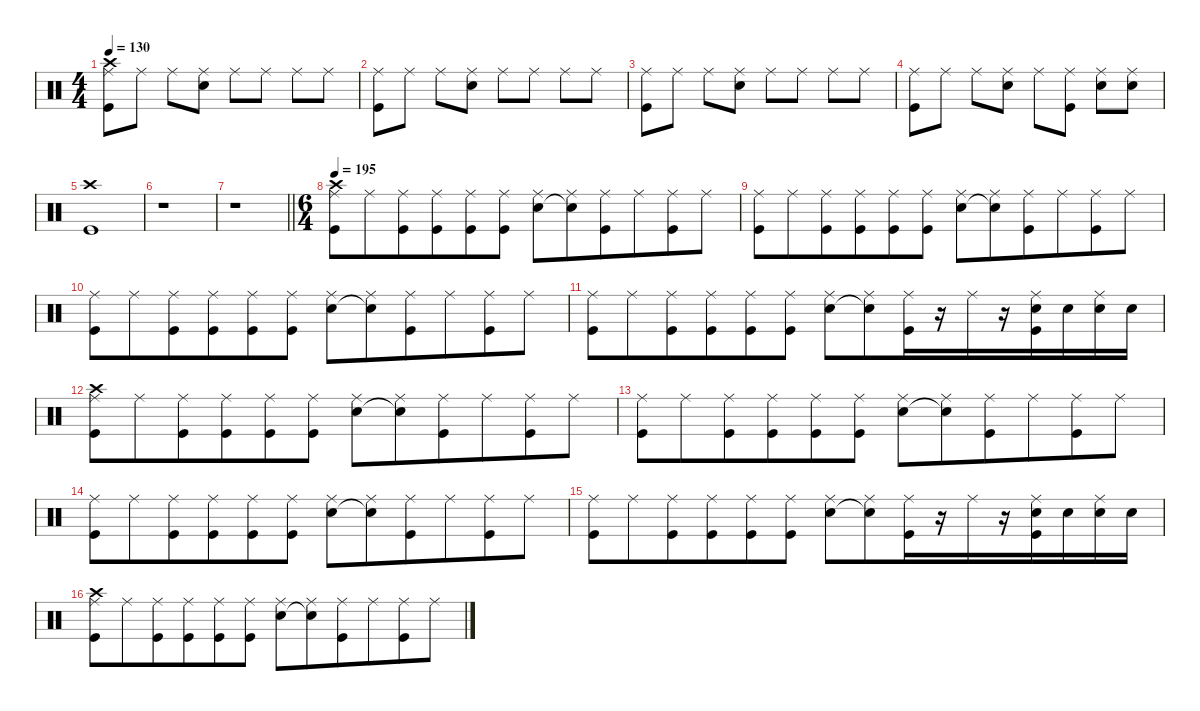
\defaultSystemsLayout 4
\hideDynamics
\bracketExtendMode nobrackets
\singleTrackTrackNamePolicy hidden
\multiTrackTrackNamePolicy hidden
\firstSystemTrackNameMode fullname
\firstSystemTrackNameOrientation horizontal
\otherSystemsTrackNameOrientation horizontal
\track ("Percussion" "drm.") {defaultSystemsLayout 2 instrument percussion}
\staff {score}
\articulation defaults
\ts (4 4)
\tempo 130
\clef neutral
\ks c
("Crash high (hit)" "Ride (middle)" "Kick (hit)").8{dy f beam Down} "Ride (middle)".8{beam Down} "Ride (middle)".8{beam Down} ("Ride (middle)" "Snare (hit) 2").8{beam Down} "Ride (middle)".8{beam Down} "Ride (middle)".8{beam Down} "Ride (middle)".8{beam Down} "Ride (middle)".8{beam Down} |
("Ride (middle)" "Kick (hit)").8{beam Down} "Ride (middle)".8{beam Down} "Ride (middle)".8{beam Down} ("Ride (middle)" "Snare (hit) 2").8{beam Down} "Ride (middle)".8{beam Down} "Ride (middle)".8{beam Down} "Ride (middle)".8{beam Down} "Ride (middle)".8{beam Down} |
("Ride (middle)" "Kick (hit)").8{beam Down} "Ride (middle)".8{beam Down} "Ride (middle)".8{beam Down} ("Ride (middle)" "Snare (hit) 2").8{beam Down} "Ride (middle)".8{beam Down} "Ride (middle)".8{beam Down} "Ride (middle)".8{beam Down} "Ride (middle)".8{beam Down} |
("Ride (middle)" "Kick (hit)").8{beam Down} "Ride (middle)".8{beam Down} "Ride (middle)".8{beam Down} ("Ride (middle)" "Snare (hit) 2").8{beam Down} "Ride (middle)".8{beam Down} ("Ride (middle)" "Kick (hit)").8{beam Down} ("Ride (middle)" "Snare (hit) 2").8{beam Down} ("Ride (middle)" "Snare (hit) 2").8{beam Down} |
("Crash high (hit)" "Kick (hit)").1{beam Down} |
r.1{beam Down} |
\barLineRight lightlight
r.1{beam Down} |
\ts (6 4)
\beaming (8 6 6)
\tempo 195
("Crash high (hit)" "Ride (middle)" "Kick (hit)").8{beam Down} "Ride (middle)".8{beam Down} ("Ride (middle)" "Kick (hit)").8{beam Down} ("Ride (middle)" "Kick (hit)").8{beam Down} ("Ride (middle)" "Kick (hit)").8{beam Down} ("Ride (middle)" "Kick (hit)").8{beam Down} ("Ride (middle)" "Snare (hit) 2").8{beam Down} ("Ride (middle)" "Snare (hit) 2"{t}).8{beam Down} ("Ride (middle)" "Kick (hit)").8{beam Down} "Ride (middle)".8{beam Down} ("Ride (middle)" "Kick (hit)").8{beam Down} "Ride (middle)".8{beam Down} |
("Ride (middle)" "Kick (hit)").8{beam Down} "Ride (middle)".8{beam Down} ("Ride (middle)" "Kick (hit)").8{beam Down} ("Ride (middle)" "Kick (hit)").8{beam Down} ("Ride (middle)" "Kick (hit)").8{beam Down} ("Ride (middle)" "Kick (hit)").8{beam Down} ("Ride (middle)" "Snare (hit) 2").8{beam Down} ("Ride (middle)" "Snare (hit) 2"{t}).8{beam Down} ("Ride (middle)" "Kick (hit)").8{beam Down} "Ride (middle)".8{beam Down} ("Ride (middle)" "Kick (hit)").8{beam Down} "Ride (middle)".8{beam Down} |
("Ride (middle)" "Kick (hit)").8{beam Down} "Ride (middle)".8{beam Down} ("Ride (middle)" "Kick (hit)").8{beam Down} ("Ride (middle)" "Kick (hit)").8{beam Down} ("Ride (middle)" "Kick (hit)").8{beam Down} ("Ride (middle)" "Kick (hit)").8{beam Down} ("Ride (middle)" "Snare (hit) 2").8{beam Down} ("Ride (middle)" "Snare (hit) 2"{t}).8{beam Down} ("Ride (middle)" "Kick (hit)").8{beam Down} "Ride (middle)".8{beam Down} ("Ride (middle)" "Kick (hit)").8{beam Down} "Ride (middle)".8{beam Down} |
("Ride (middle)" "Kick (hit)").8{beam Down} "Ride (middle)".8{beam Down} ("Ride (middle)" "Kick (hit)").8{beam Down} ("Ride (middle)" "Kick (hit)").8{beam Down} ("Ride (middle)" "Kick (hit)").8{beam Down} ("Ride (middle)" "Kick (hit)").8{beam Down} ("Ride (middle)" "Snare (hit) 2").8{beam Down} ("Ride (middle)" "Snare (hit) 2"{t}).8{beam Down} ("Ride (middle)" "Kick (hit)").16{beam Down} r.16{beam Down} "Ride (middle)".16{beam Down} r.16{beam Down} ("Ride (middle)" "Snare (hit) 2" "Kick (hit)").16{beam Down} "Snare (hit) 2".16{beam Down} ("Ride (middle)" "Snare (hit) 2").16{beam Down} "Snare (hit) 2".16{beam Down} |
("Crash high (hit)" "Ride (middle)" "Kick (hit)").8{beam Down} "Ride (middle)".8{beam Down} ("Ride (middle)" "Kick (hit)").8{beam Down} ("Ride (middle)" "Kick (hit)").8{beam Down} ("Ride (middle)" "Kick (hit)").8{beam Down} ("Ride (middle)" "Kick (hit)").8{beam Down} ("Ride (middle)" "Snare (hit) 2").8{beam Down} ("Ride (middle)" "Snare (hit) 2"{t}).8{beam Down} ("Ride (middle)" "Kick (hit)").8{beam Down} "Ride (middle)".8{beam Down} ("Ride (middle)" "Kick (hit)").8{beam Down} "Ride (middle)".8{beam Down} |
("Ride (middle)" "Kick (hit)").8{beam Down} "Ride (middle)".8{beam Down} ("Ride (middle)" "Kick (hit)").8{beam Down} ("Ride (middle)" "Kick (hit)").8{beam Down} ("Ride (middle)" "Kick (hit)").8{beam Down} ("Ride (middle)" "Kick (hit)").8{beam Down} ("Ride (middle)" "Snare (hit) 2").8{beam Down} ("Ride (middle)" "Snare (hit) 2"{t}).8{beam Down} ("Ride (middle)" "Kick (hit)").8{beam Down} "Ride (middle)".8{beam Down} ("Ride (middle)" "Kick (hit)").8{beam Down} "Ride (middle)".8{beam Down} |
("Ride (middle)" "Kick (hit)").8{beam Down} "Ride (middle)".8{beam Down} ("Ride (middle)" "Kick (hit)").8{beam Down} ("Ride (middle)" "Kick (hit)").8{beam Down} ("Ride (middle)" "Kick (hit)").8{beam Down} ("Ride (middle)" "Kick (hit)").8{beam Down} ("Ride (middle)" "Snare (hit) 2").8{beam Down} ("Ride (middle)" "Snare (hit) 2"{t}).8{beam Down} ("Ride (middle)" "Kick (hit)").8{beam Down} "Ride (middle)".8{beam Down} ("Ride (middle)" "Kick (hit)").8{beam Down} "Ride (middle)".8{beam Down} |
("Ride (middle)" "Kick (hit)").8{beam Down} "Ride (middle)".8{beam Down} ("Ride (middle)" "Kick (hit)").8{beam Down} ("Ride (middle)" "Kick (hit)").8{beam Down} ("Ride (middle)" "Kick (hit)").8{beam Down} ("Ride (middle)" "Kick (hit)").8{beam Down} ("Ride (middle)" "Snare (hit) 2").8{beam Down} ("Ride (middle)" "Snare (hit) 2"{t}).8{beam Down} ("Ride (middle)" "Kick (hit)").16{beam Down} r.16{beam Down} "Ride (middle)".16{beam Down} r.16{beam Down} ("Ride (middle)" "Snare (hit) 2" "Kick (hit)").16{beam Down} "Snare (hit) 2".16{beam Down} ("Ride (middle)" "Snare (hit) 2").16{beam Down} "Snare (hit) 2".16{beam Down} |
("Crash high (hit)" "Ride (middle)" "Kick (hit)").8{beam Down} "Ride (middle)".8{beam Down} ("Ride (middle)" "Kick (hit)").8{beam Down} ("Ride (middle)" "Kick (hit)").8{beam Down} ("Ride (middle)" "Kick (hit)").8{beam Down} ("Ride (middle)" "Kick (hit)").8{beam Down} ("Ride (middle)" "Snare (hit) 2").8{beam Down} ("Ride (middle)" "Snare (hit) 2"{t}).8{beam Down} ("Ride (middle)" "Kick (hit)").8{beam Down} "Ride (middle)".8{beam Down} ("Ride (middle)" "Kick (hit)").8{beam Down} "Ride (middle)".8{beam Down}
